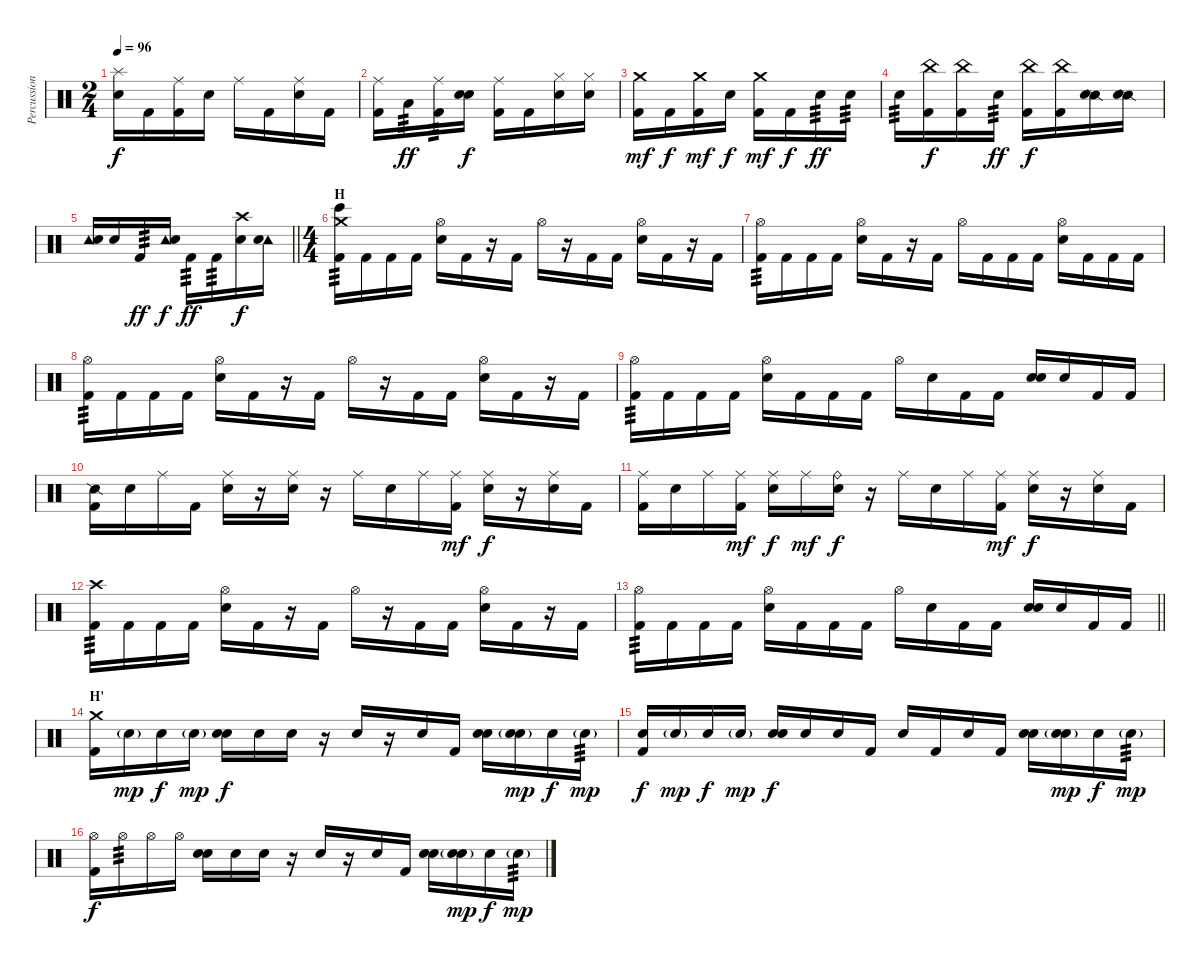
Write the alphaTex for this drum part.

\track ("Percussion" "Percussion") {instrument percussion}
\staff {score}
\articulation defaults
\ts (2 4)
\tempo 96
\clef neutral
\ks c
("Splash (hit)" "Snare (hit) 2").16{dy f} "Kick (hit) 2".16 ("Ride (middle)" "Kick (hit) 2").16 "Snare (hit) 2".16 "Ride (middle)".16 "Kick (hit) 2".16 ("Ride (middle)" "Snare (hit) 2").16 "Kick (hit) 2".16 |
("Ride (middle)" "Kick (hit) 2").16 "Low Tom (hit)".16{tp 3 dy ff} ("Ride (middle)" "Kick (hit) 2").16{tp 3} ("Snare (hit)" "Snare (hit) 2").16{dy f} ("Ride (middle)" "Kick (hit) 2").16 "Kick (hit) 2".16 ("Hi-Hat (closed)" "Snare (hit) 2").16 ("Hi-Hat (closed)" "Snare (hit) 2").16 |
("Crash medium (hit)" "Kick (hit) 2").16{dy mf} "Kick (hit) 2".16{dy f} ("Crash medium (hit)" "Kick (hit) 2").16{dy mf} "Snare (hit) 2".16{dy f} ("Crash medium (hit)" "Kick (hit) 2").16{dy mf} "Kick (hit) 2".16{dy f} "Snare (hit) 2".16{tp 3 dy ff} "Snare (hit) 2".16{tp 3} |
"Snare (hit) 2".16{tp 3} ("China (hit)" "Kick (hit) 2").16{dy f} ("China (hit)" "Kick (hit) 2").16 "Snare (hit) 2".16{tp 3 dy ff} ("China (hit)" "Kick (hit) 2").16{dy f} ("China (hit)" "Kick (hit) 2").16 ("Snare (side stick) 2" "Snare (hit) 2").16 ("Snare (side stick) 2" "Snare (hit) 2").16 |
\barLineRight lightlight
("Tambourine (hit)" "Snare (hit) 2").16 "Snare (hit) 2".16 "Kick (hit) 2".16{tp 3 dy ff} ("Tambourine (hit)" "Snare (hit) 2").16{dy f} "Kick (hit) 2".16{tp 3 dy ff} "Kick (hit) 2".16{tp 3} ("Crash high (hit)" "Snare (hit) 2").16{dy f} ("Tambourine (hit)" "Snare (hit) 2").16 |
\ts (4 4)
\section ("" "H")
("Crash medium (hit)" "Bongo High (hit)" "Kick (hit) 2").16{tp 3} "Kick (hit) 2".16 "Kick (hit) 2".16 "Kick (hit) 2".16 ("Hi-Hat (open)" "Snare (hit) 2").16 "Kick (hit) 2".16 r.16 "Kick (hit) 2".16 "Hi-Hat (open)".16 r.16 "Kick (hit) 2".16 "Kick (hit) 2".16 ("Hi-Hat (open)" "Snare (hit) 2").16 "Kick (hit) 2".16 r.16 "Kick (hit) 2".16 |
("Hi-Hat (open)" "Kick (hit) 2").16{tp 3} "Kick (hit) 2".16 "Kick (hit) 2".16 "Kick (hit) 2".16 ("Hi-Hat (open)" "Snare (hit) 2").16 "Kick (hit) 2".16 r.16 "Kick (hit) 2".16 "Hi-Hat (open)".16 "Kick (hit) 2".16 "Kick (hit) 2".16 "Kick (hit) 2".16 ("Hi-Hat (open)" "Snare (hit) 2").16 "Kick (hit) 2".16 "Kick (hit) 2".16 "Kick (hit) 2".16 |
("Hi-Hat (open)" "Kick (hit) 2").16{tp 3} "Kick (hit) 2".16 "Kick (hit) 2".16 "Kick (hit) 2".16 ("Hi-Hat (open)" "Snare (hit) 2").16 "Kick (hit) 2".16 r.16 "Kick (hit) 2".16 "Hi-Hat (open)".16 r.16 "Kick (hit) 2".16 "Kick (hit) 2".16 ("Hi-Hat (open)" "Snare (hit) 2").16 "Kick (hit) 2".16 r.16 "Kick (hit) 2".16 |
("Hi-Hat (open)" "Kick (hit) 2").16{tp 3} "Kick (hit) 2".16 "Kick (hit) 2".16 "Kick (hit) 2".16 ("Hi-Hat (open)" "Snare (hit) 2").16 "Kick (hit) 2".16 "Kick (hit) 2".16 "Kick (hit) 2".16 "Hi-Hat (open)".16 "Snare (hit) 2".16 "Kick (hit) 2".16 "Kick (hit) 2".16 ("Snare (hit)" "Snare (hit) 2").16 "Snare (hit) 2".16 "Kick (hit) 2".16 "Kick (hit) 2".16 |
("Snare (side stick) 2" "Kick (hit) 2").16 "Snare (hit) 2".16 "Ride (middle)".16 "Kick (hit) 2".16 ("Ride (middle)" "Snare (hit) 2").16 r.16 ("Ride (middle)" "Snare (hit) 2").16 r.16 "Ride (middle)".16 "Snare (hit) 2".16 "Ride (middle)".16 ("Ride (middle)" "Kick (hit) 2").16{dy mf} ("Ride (middle)" "Snare (hit) 2").16{dy f} r.16 ("Ride (middle)" "Snare (hit) 2").16 "Kick (hit) 2".16 |
("Ride (middle)" "Kick (hit) 2").16 "Snare (hit) 2".16 "Ride (middle)".16 ("Ride (middle)" "Kick (hit) 2").16{dy mf} ("Ride (middle)" "Snare (hit) 2").16{dy f} "Ride (middle)".16{dy mf} ("Ride (bell)" "Snare (hit) 2").16{dy f} r.16 "Ride (middle)".16 "Snare (hit) 2".16 "Ride (middle)".16 ("Ride (middle)" "Kick (hit) 2").16{dy mf} ("Ride (middle)" "Snare (hit) 2").16{dy f} r.16 ("Ride (middle)" "Snare (hit) 2").16 "Kick (hit) 2".16 |
("Crash high (hit)" "Kick (hit) 2").16{tp 3} "Kick (hit) 2".16 "Kick (hit) 2".16 "Kick (hit) 2".16 ("Hi-Hat (open)" "Snare (hit) 2").16 "Kick (hit) 2".16 r.16 "Kick (hit) 2".16 "Hi-Hat (open)".16 r.16 "Kick (hit) 2".16 "Kick (hit) 2".16 ("Hi-Hat (open)" "Snare (hit) 2").16 "Kick (hit) 2".16 r.16 "Kick (hit) 2".16 |
\barLineRight lightlight
("Hi-Hat (open)" "Kick (hit) 2").16{tp 3} "Kick (hit) 2".16 "Kick (hit) 2".16 "Kick (hit) 2".16 ("Hi-Hat (open)" "Snare (hit) 2").16 "Kick (hit) 2".16 "Kick (hit) 2".16 "Kick (hit) 2".16 "Hi-Hat (open)".16 "Snare (hit) 2".16 "Kick (hit) 2".16 "Kick (hit) 2".16 ("Snare (hit)" "Snare (hit) 2").16 "Snare (hit) 2".16 "Kick (hit) 2".16 "Kick (hit) 2".16 |
\section ("" "H'")
("Crash medium (hit)" "Kick (hit) 2").16 "Snare (hit)"{g}.16{dy mp} "Snare (hit)".16{dy f} "Snare (hit)"{g}.16{dy mp} ("Snare (hit)" "Snare (hit) 2").16{dy f} "Snare (hit) 2".16 "Snare (hit)".16 r.16 "Snare (hit)".16 r.16 "Snare (hit)".16 "Kick (hit) 2".16 ("Snare (hit)" "Snare (hit) 2").16 ("Snare (hit)"{g} "Snare (hit) 2").16{dy mp} "Snare (hit)".16{dy f} "Snare (hit)"{g}.16{tp 3 dy mp} |
("Snare (hit)" "Kick (hit) 2").16{dy f} "Snare (hit)"{g}.16{dy mp} "Snare (hit)".16{dy f} "Snare (hit)"{g}.16{dy mp} ("Snare (hit)" "Snare (hit) 2").16{dy f} "Snare (hit) 2".16 "Snare (hit)".16 "Kick (hit) 2".16 "Snare (hit)".16 "Kick (hit) 2".16 "Snare (hit)".16 "Kick (hit) 2".16 ("Snare (hit)" "Snare (hit) 2").16 ("Snare (hit)"{g} "Snare (hit) 2").16{dy mp} "Snare (hit)".16{dy f} "Snare (hit)"{g}.16{tp 3 dy mp} |
("Hi-Hat (open)" "Kick (hit) 2").16{dy f} "Hi-Hat (open)".16{tp 3} "Hi-Hat (open)".16 "Hi-Hat (open)".16 ("Snare (hit)" "Snare (hit) 2").16 "Snare (hit) 2".16 "Snare (hit)".16 r.16 "Snare (hit)".16 r.16 "Snare (hit)".16 "Kick (hit) 2".16 ("Snare (hit)" "Snare (hit) 2").16 ("Snare (hit)"{g} "Snare (hit) 2").16{dy mp} "Snare (hit)".16{dy f} "Snare (hit)"{g}.16{tp 3 dy mp}
